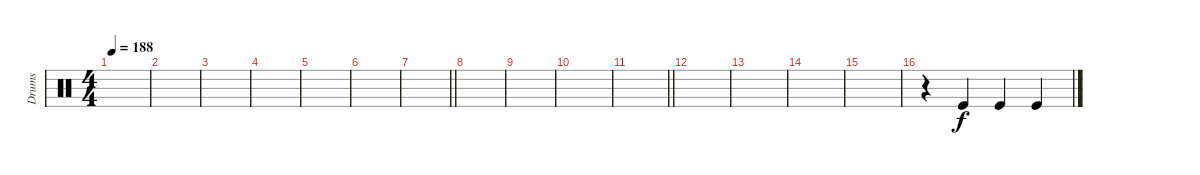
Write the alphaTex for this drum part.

\track ("Drums" "Drums") {instrument percussion}
\staff
\articulation defaults
\ts (4 4)
\tempo 188
\clef neutral
\ks c
|
|
|
|
|
|
\barLineRight lightlight
|
|
|
|
\barLineRight lightlight
|
|
|
|
|
r.4 "Kick (hit)".4 "Kick (hit)".4 "Kick (hit)".4
